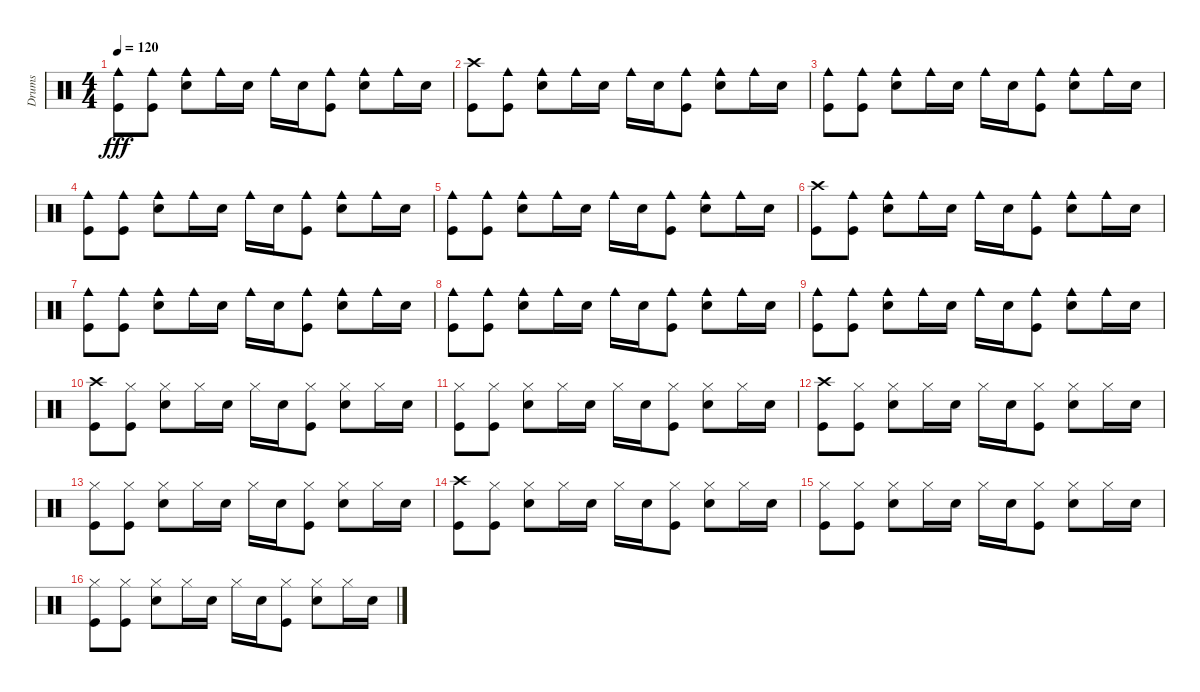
\track ("Drums" "Drums") {instrument percussion}
\staff {score}
\articulation defaults
\ts (4 4)
\tempo 120
\clef neutral
\ks c
("Cowbell medium (hit)" "Kick (hit)").8{dy fff} ("Cowbell medium (hit)" "Kick (hit)").8 ("Cowbell medium (hit)" "Snare (hit) 2").8 "Cowbell medium (hit)".16 "Snare (hit) 2".16 "Cowbell medium (hit)".16 "Snare (hit) 2".16 ("Cowbell medium (hit)" "Kick (hit)").8 ("Cowbell medium (hit)" "Snare (hit) 2").8 "Cowbell medium (hit)".16 "Snare (hit) 2".16 |
("Crash high (hit)" "Kick (hit)").8 ("Cowbell medium (hit)" "Kick (hit)").8 ("Cowbell medium (hit)" "Snare (hit) 2").8 "Cowbell medium (hit)".16 "Snare (hit) 2".16 "Cowbell medium (hit)".16 "Snare (hit) 2".16 ("Cowbell medium (hit)" "Kick (hit)").8 ("Cowbell medium (hit)" "Snare (hit) 2").8 "Cowbell medium (hit)".16 "Snare (hit) 2".16 |
("Cowbell medium (hit)" "Kick (hit)").8 ("Cowbell medium (hit)" "Kick (hit)").8 ("Cowbell medium (hit)" "Snare (hit) 2").8 "Cowbell medium (hit)".16 "Snare (hit) 2".16 "Cowbell medium (hit)".16 "Snare (hit) 2".16 ("Cowbell medium (hit)" "Kick (hit)").8 ("Cowbell medium (hit)" "Snare (hit) 2").8 "Cowbell medium (hit)".16 "Snare (hit) 2".16 |
("Cowbell medium (hit)" "Kick (hit)").8 ("Cowbell medium (hit)" "Kick (hit)").8 ("Cowbell medium (hit)" "Snare (hit) 2").8 "Cowbell medium (hit)".16 "Snare (hit) 2".16 "Cowbell medium (hit)".16 "Snare (hit) 2".16 ("Cowbell medium (hit)" "Kick (hit)").8 ("Cowbell medium (hit)" "Snare (hit) 2").8 "Cowbell medium (hit)".16 "Snare (hit) 2".16 |
("Cowbell medium (hit)" "Kick (hit)").8 ("Cowbell medium (hit)" "Kick (hit)").8 ("Cowbell medium (hit)" "Snare (hit) 2").8 "Cowbell medium (hit)".16 "Snare (hit) 2".16 "Cowbell medium (hit)".16 "Snare (hit) 2".16 ("Cowbell medium (hit)" "Kick (hit)").8 ("Cowbell medium (hit)" "Snare (hit) 2").8 "Cowbell medium (hit)".16 "Snare (hit) 2".16 |
("Crash high (hit)" "Kick (hit)").8 ("Cowbell medium (hit)" "Kick (hit)").8 ("Cowbell medium (hit)" "Snare (hit) 2").8 "Cowbell medium (hit)".16 "Snare (hit) 2".16 "Cowbell medium (hit)".16 "Snare (hit) 2".16 ("Cowbell medium (hit)" "Kick (hit)").8 ("Cowbell medium (hit)" "Snare (hit) 2").8 "Cowbell medium (hit)".16 "Snare (hit) 2".16 |
("Cowbell medium (hit)" "Kick (hit)").8 ("Cowbell medium (hit)" "Kick (hit)").8 ("Cowbell medium (hit)" "Snare (hit) 2").8 "Cowbell medium (hit)".16 "Snare (hit) 2".16 "Cowbell medium (hit)".16 "Snare (hit) 2".16 ("Cowbell medium (hit)" "Kick (hit)").8 ("Cowbell medium (hit)" "Snare (hit) 2").8 "Cowbell medium (hit)".16 "Snare (hit) 2".16 |
("Cowbell medium (hit)" "Kick (hit)").8 ("Cowbell medium (hit)" "Kick (hit)").8 ("Cowbell medium (hit)" "Snare (hit) 2").8 "Cowbell medium (hit)".16 "Snare (hit) 2".16 "Cowbell medium (hit)".16 "Snare (hit) 2".16 ("Cowbell medium (hit)" "Kick (hit)").8 ("Cowbell medium (hit)" "Snare (hit) 2").8 "Cowbell medium (hit)".16 "Snare (hit) 2".16 |
("Cowbell medium (hit)" "Kick (hit)").8 ("Cowbell medium (hit)" "Kick (hit)").8 ("Cowbell medium (hit)" "Snare (hit) 2").8 "Cowbell medium (hit)".16 "Snare (hit) 2".16 "Cowbell medium (hit)".16 "Snare (hit) 2".16 ("Cowbell medium (hit)" "Kick (hit)").8 ("Cowbell medium (hit)" "Snare (hit) 2").8 "Cowbell medium (hit)".16 "Snare (hit) 2".16 |
("Crash high (hit)" "Kick (hit)").8 ("Hi-Hat (closed)" "Kick (hit)").8 ("Hi-Hat (closed)" "Snare (hit) 2").8 "Hi-Hat (closed)".16 "Snare (hit) 2".16 "Hi-Hat (closed)".16 "Snare (hit) 2".16 ("Hi-Hat (closed)" "Kick (hit)").8 ("Hi-Hat (closed)" "Snare (hit) 2").8 "Hi-Hat (closed)".16 "Snare (hit) 2".16 |
("Hi-Hat (closed)" "Kick (hit)").8 ("Hi-Hat (closed)" "Kick (hit)").8 ("Hi-Hat (closed)" "Snare (hit) 2").8 "Hi-Hat (closed)".16 "Snare (hit) 2".16 "Hi-Hat (closed)".16 "Snare (hit) 2".16 ("Hi-Hat (closed)" "Kick (hit)").8 ("Hi-Hat (closed)" "Snare (hit) 2").8 "Hi-Hat (closed)".16 "Snare (hit) 2".16 |
("Crash high (hit)" "Kick (hit)").8 ("Hi-Hat (closed)" "Kick (hit)").8 ("Hi-Hat (closed)" "Snare (hit) 2").8 "Hi-Hat (closed)".16 "Snare (hit) 2".16 "Hi-Hat (closed)".16 "Snare (hit) 2".16 ("Hi-Hat (closed)" "Kick (hit)").8 ("Hi-Hat (closed)" "Snare (hit) 2").8 "Hi-Hat (closed)".16 "Snare (hit) 2".16 |
("Hi-Hat (closed)" "Kick (hit)").8 ("Hi-Hat (closed)" "Kick (hit)").8 ("Hi-Hat (closed)" "Snare (hit) 2").8 "Hi-Hat (closed)".16 "Snare (hit) 2".16 "Hi-Hat (closed)".16 "Snare (hit) 2".16 ("Hi-Hat (closed)" "Kick (hit)").8 ("Hi-Hat (closed)" "Snare (hit) 2").8 "Hi-Hat (closed)".16 "Snare (hit) 2".16 |
("Crash high (hit)" "Kick (hit)").8 ("Hi-Hat (closed)" "Kick (hit)").8 ("Hi-Hat (closed)" "Snare (hit) 2").8 "Hi-Hat (closed)".16 "Snare (hit) 2".16 "Hi-Hat (closed)".16 "Snare (hit) 2".16 ("Hi-Hat (closed)" "Kick (hit)").8 ("Hi-Hat (closed)" "Snare (hit) 2").8 "Hi-Hat (closed)".16 "Snare (hit) 2".16 |
("Hi-Hat (closed)" "Kick (hit)").8 ("Hi-Hat (closed)" "Kick (hit)").8 ("Hi-Hat (closed)" "Snare (hit) 2").8 "Hi-Hat (closed)".16 "Snare (hit) 2".16 "Hi-Hat (closed)".16 "Snare (hit) 2".16 ("Hi-Hat (closed)" "Kick (hit)").8 ("Hi-Hat (closed)" "Snare (hit) 2").8 "Hi-Hat (closed)".16 "Snare (hit) 2".16 |
("Hi-Hat (closed)" "Kick (hit)").8 ("Hi-Hat (closed)" "Kick (hit)").8 ("Hi-Hat (closed)" "Snare (hit) 2").8 "Hi-Hat (closed)".16 "Snare (hit) 2".16 "Hi-Hat (closed)".16 "Snare (hit) 2".16 ("Hi-Hat (closed)" "Kick (hit)").8 ("Hi-Hat (closed)" "Snare (hit) 2").8 "Hi-Hat (closed)".16 "Snare (hit) 2".16
